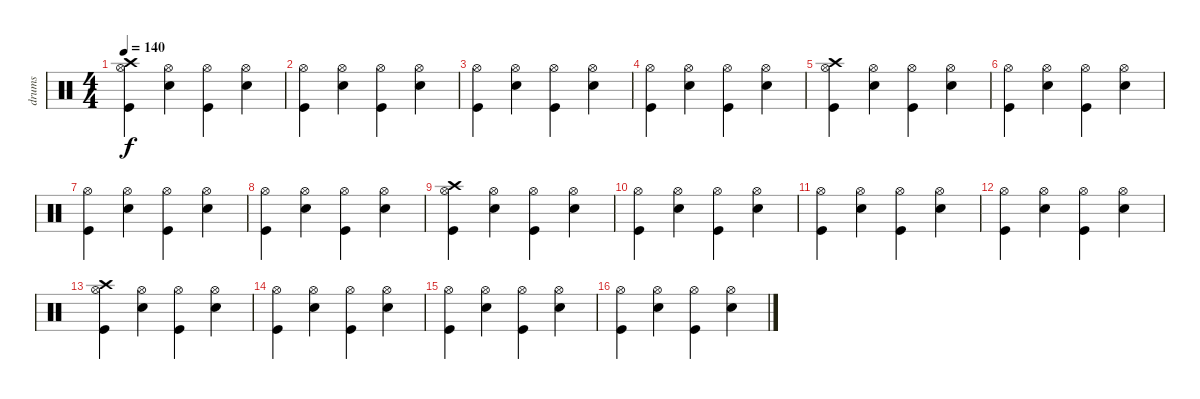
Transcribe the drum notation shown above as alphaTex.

\track ("drums" "drums") {instrument percussion}
\staff {score}
\articulation defaults
\ts (4 4)
\tempo 140
\clef neutral
\ks c
("Hi-Hat (open)" "Kick (hit)" "Crash high (hit)").4{dy f} ("Hi-Hat (open)" "Snare (hit) 2").4 ("Hi-Hat (open)" "Kick (hit)").4 ("Hi-Hat (open)" "Snare (hit) 2").4 |
("Hi-Hat (open)" "Kick (hit)").4 ("Hi-Hat (open)" "Snare (hit) 2").4 ("Hi-Hat (open)" "Kick (hit)").4 ("Hi-Hat (open)" "Snare (hit) 2").4 |
("Hi-Hat (open)" "Kick (hit)").4 ("Hi-Hat (open)" "Snare (hit) 2").4 ("Hi-Hat (open)" "Kick (hit)").4 ("Hi-Hat (open)" "Snare (hit) 2").4 |
("Hi-Hat (open)" "Kick (hit)").4 ("Hi-Hat (open)" "Snare (hit) 2").4 ("Hi-Hat (open)" "Kick (hit)").4 ("Hi-Hat (open)" "Snare (hit) 2").4 |
("Hi-Hat (open)" "Kick (hit)" "Crash high (hit)").4 ("Hi-Hat (open)" "Snare (hit) 2").4 ("Hi-Hat (open)" "Kick (hit)").4 ("Hi-Hat (open)" "Snare (hit) 2").4 |
("Hi-Hat (open)" "Kick (hit)").4 ("Hi-Hat (open)" "Snare (hit) 2").4 ("Hi-Hat (open)" "Kick (hit)").4 ("Hi-Hat (open)" "Snare (hit) 2").4 |
("Hi-Hat (open)" "Kick (hit)").4 ("Hi-Hat (open)" "Snare (hit) 2").4 ("Hi-Hat (open)" "Kick (hit)").4 ("Hi-Hat (open)" "Snare (hit) 2").4 |
("Hi-Hat (open)" "Kick (hit)").4 ("Hi-Hat (open)" "Snare (hit) 2").4 ("Hi-Hat (open)" "Kick (hit)").4 ("Hi-Hat (open)" "Snare (hit) 2").4 |
("Hi-Hat (open)" "Kick (hit)" "Crash high (hit)").4 ("Hi-Hat (open)" "Snare (hit) 2").4 ("Hi-Hat (open)" "Kick (hit)").4 ("Hi-Hat (open)" "Snare (hit) 2").4 |
("Hi-Hat (open)" "Kick (hit)").4 ("Hi-Hat (open)" "Snare (hit) 2").4 ("Hi-Hat (open)" "Kick (hit)").4 ("Hi-Hat (open)" "Snare (hit) 2").4 |
("Hi-Hat (open)" "Kick (hit)").4 ("Hi-Hat (open)" "Snare (hit) 2").4 ("Hi-Hat (open)" "Kick (hit)").4 ("Hi-Hat (open)" "Snare (hit) 2").4 |
("Hi-Hat (open)" "Kick (hit)").4 ("Hi-Hat (open)" "Snare (hit) 2").4 ("Hi-Hat (open)" "Kick (hit)").4 ("Hi-Hat (open)" "Snare (hit) 2").4 |
("Hi-Hat (open)" "Kick (hit)" "Crash high (hit)").4 ("Hi-Hat (open)" "Snare (hit) 2").4 ("Hi-Hat (open)" "Kick (hit)").4 ("Hi-Hat (open)" "Snare (hit) 2").4 |
("Hi-Hat (open)" "Kick (hit)").4 ("Hi-Hat (open)" "Snare (hit) 2").4 ("Hi-Hat (open)" "Kick (hit)").4 ("Hi-Hat (open)" "Snare (hit) 2").4 |
("Hi-Hat (open)" "Kick (hit)").4 ("Hi-Hat (open)" "Snare (hit) 2").4 ("Hi-Hat (open)" "Kick (hit)").4 ("Hi-Hat (open)" "Snare (hit) 2").4 |
("Hi-Hat (open)" "Kick (hit)").4 ("Hi-Hat (open)" "Snare (hit) 2").4 ("Hi-Hat (open)" "Kick (hit)").4 ("Hi-Hat (open)" "Snare (hit) 2").4
